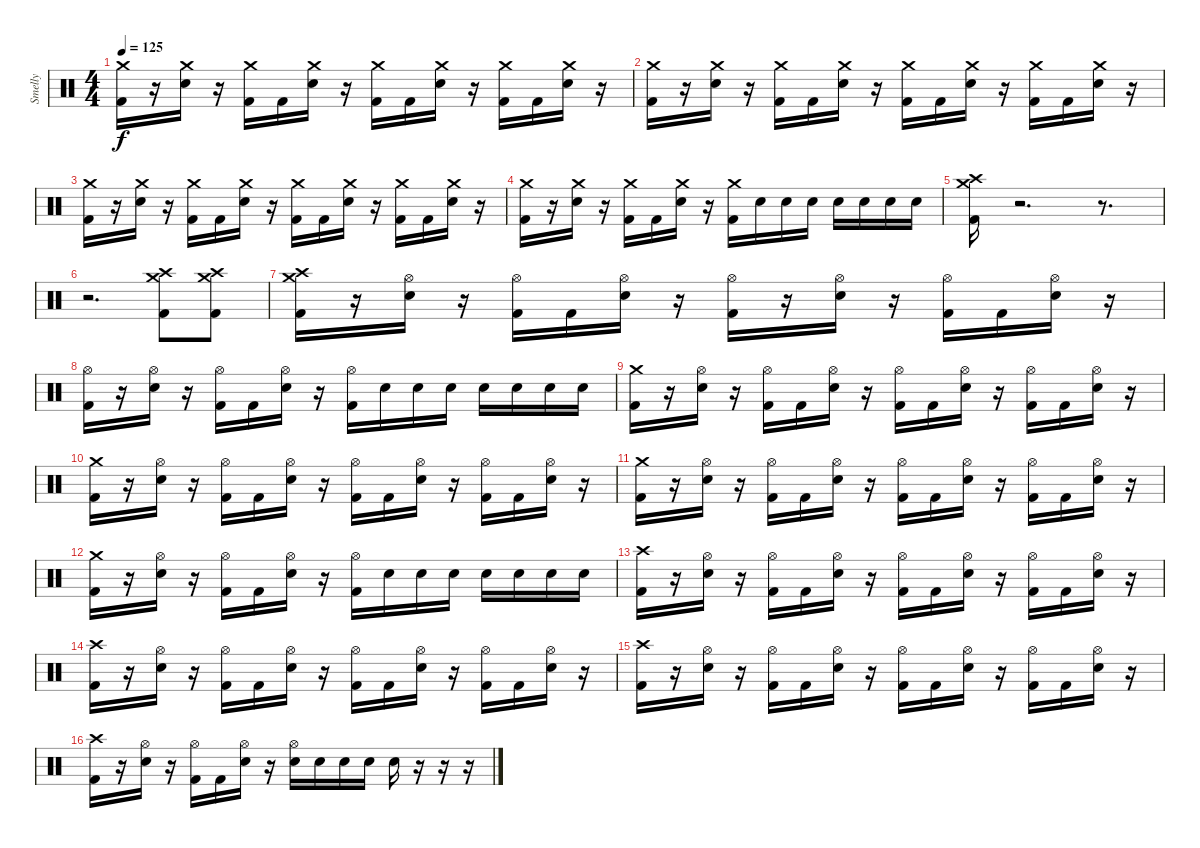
\track ("Smelly" "Smelly") {instrument percussion}
\staff {score}
\articulation defaults
\ts (4 4)
\tempo 125
\clef neutral
\ks c
("Crash medium (hit)" "Kick (hit) 2").16{dy f} r.16 ("Crash medium (hit)" "Electric Snare (hit)").16 r.16 ("Crash medium (hit)" "Kick (hit) 2").16 "Kick (hit) 2".16 ("Crash medium (hit)" "Electric Snare (hit)").16 r.16 ("Crash medium (hit)" "Kick (hit) 2").16 "Kick (hit) 2".16 ("Crash medium (hit)" "Electric Snare (hit)").16 r.16 ("Crash medium (hit)" "Kick (hit) 2").16 "Kick (hit) 2".16 ("Crash medium (hit)" "Electric Snare (hit)").16 r.16 |
("Crash medium (hit)" "Kick (hit) 2").16 r.16 ("Crash medium (hit)" "Electric Snare (hit)").16 r.16 ("Crash medium (hit)" "Kick (hit) 2").16 "Kick (hit) 2".16 ("Crash medium (hit)" "Electric Snare (hit)").16 r.16 ("Crash medium (hit)" "Kick (hit) 2").16 "Kick (hit) 2".16 ("Crash medium (hit)" "Electric Snare (hit)").16 r.16 ("Crash medium (hit)" "Kick (hit) 2").16 "Kick (hit) 2".16 ("Crash medium (hit)" "Electric Snare (hit)").16 r.16 |
("Crash medium (hit)" "Kick (hit) 2").16 r.16 ("Crash medium (hit)" "Electric Snare (hit)").16 r.16 ("Crash medium (hit)" "Kick (hit) 2").16 "Kick (hit) 2".16 ("Crash medium (hit)" "Electric Snare (hit)").16 r.16 ("Crash medium (hit)" "Kick (hit) 2").16 "Kick (hit) 2".16 ("Crash medium (hit)" "Electric Snare (hit)").16 r.16 ("Crash medium (hit)" "Kick (hit) 2").16 "Kick (hit) 2".16 ("Crash medium (hit)" "Electric Snare (hit)").16 r.16 |
("Crash medium (hit)" "Kick (hit) 2").16 r.16 ("Crash medium (hit)" "Electric Snare (hit)").16 r.16 ("Crash medium (hit)" "Kick (hit) 2").16 "Kick (hit) 2".16 ("Crash medium (hit)" "Electric Snare (hit)").16 r.16 ("Crash medium (hit)" "Kick (hit) 2").16 "Electric Snare (hit)".16 "Electric Snare (hit)".16 "Electric Snare (hit)".16 "Electric Snare (hit)".16 "Electric Snare (hit)".16 "Electric Snare (hit)".16 "Electric Snare (hit)".16 |
("Crash medium (hit)" "Crash high (hit)" "Kick (hit) 2").16 r.2{d} r.8{d} |
r.2{d} ("Crash high (hit)" "Crash medium (hit)" "Kick (hit) 2").8 ("Crash high (hit)" "Crash medium (hit)" "Kick (hit) 2").8 |
("Crash high (hit)" "Crash medium (hit)" "Kick (hit) 2").16 r.16 ("Hi-Hat (open)" "Electric Snare (hit)").16 r.16 ("Hi-Hat (open)" "Kick (hit) 2").16 "Kick (hit) 2".16 ("Hi-Hat (open)" "Electric Snare (hit)").16 r.16 ("Hi-Hat (open)" "Kick (hit) 2").16 r.16 ("Hi-Hat (open)" "Electric Snare (hit)").16 r.16 ("Hi-Hat (open)" "Kick (hit) 2").16 "Kick (hit) 2".16 ("Hi-Hat (open)" "Electric Snare (hit)").16 r.16 |
("Hi-Hat (open)" "Kick (hit) 2").16 r.16 ("Hi-Hat (open)" "Electric Snare (hit)").16 r.16 ("Hi-Hat (open)" "Kick (hit) 2").16 "Kick (hit) 2".16 ("Hi-Hat (open)" "Electric Snare (hit)").16 r.16 ("Hi-Hat (open)" "Kick (hit) 2").16 "Electric Snare (hit)".16 "Electric Snare (hit)".16 "Electric Snare (hit)".16 "Electric Snare (hit)".16 "Electric Snare (hit)".16 "Electric Snare (hit)".16 "Electric Snare (hit)".16 |
("Crash medium (hit)" "Kick (hit) 2").16 r.16 ("Hi-Hat (open)" "Electric Snare (hit)").16 r.16 ("Hi-Hat (open)" "Kick (hit) 2").16 "Kick (hit) 2".16 ("Hi-Hat (open)" "Electric Snare (hit)").16 r.16 ("Hi-Hat (open)" "Kick (hit) 2").16 "Kick (hit) 2".16 ("Hi-Hat (open)" "Electric Snare (hit)").16 r.16 ("Hi-Hat (open)" "Kick (hit) 2").16 "Kick (hit) 2".16 ("Hi-Hat (open)" "Electric Snare (hit)").16 r.16 |
("Crash medium (hit)" "Kick (hit) 2").16 r.16 ("Hi-Hat (open)" "Electric Snare (hit)").16 r.16 ("Hi-Hat (open)" "Kick (hit) 2").16 "Kick (hit) 2".16 ("Hi-Hat (open)" "Electric Snare (hit)").16 r.16 ("Hi-Hat (open)" "Kick (hit) 2").16 "Kick (hit) 2".16 ("Hi-Hat (open)" "Electric Snare (hit)").16 r.16 ("Hi-Hat (open)" "Kick (hit) 2").16 "Kick (hit) 2".16 ("Hi-Hat (open)" "Electric Snare (hit)").16 r.16 |
("Crash medium (hit)" "Kick (hit) 2").16 r.16 ("Hi-Hat (open)" "Electric Snare (hit)").16 r.16 ("Hi-Hat (open)" "Kick (hit) 2").16 "Kick (hit) 2".16 ("Hi-Hat (open)" "Electric Snare (hit)").16 r.16 ("Hi-Hat (open)" "Kick (hit) 2").16 "Kick (hit) 2".16 ("Hi-Hat (open)" "Electric Snare (hit)").16 r.16 ("Hi-Hat (open)" "Kick (hit) 2").16 "Kick (hit) 2".16 ("Hi-Hat (open)" "Electric Snare (hit)").16 r.16 |
("Crash medium (hit)" "Kick (hit) 2").16 r.16 ("Hi-Hat (open)" "Electric Snare (hit)").16 r.16 ("Hi-Hat (open)" "Kick (hit) 2").16 "Kick (hit) 2".16 ("Hi-Hat (open)" "Electric Snare (hit)").16 r.16 ("Hi-Hat (open)" "Kick (hit) 2").16 "Electric Snare (hit)".16 "Electric Snare (hit)".16 "Electric Snare (hit)".16 "Electric Snare (hit)".16 "Electric Snare (hit)".16 "Electric Snare (hit)".16 "Electric Snare (hit)".16 |
("Crash high (hit)" "Kick (hit) 2").16 r.16 ("Hi-Hat (open)" "Electric Snare (hit)").16 r.16 ("Hi-Hat (open)" "Kick (hit) 2").16 "Kick (hit) 2".16 ("Hi-Hat (open)" "Electric Snare (hit)").16 r.16 ("Hi-Hat (open)" "Kick (hit) 2").16 "Kick (hit) 2".16 ("Hi-Hat (open)" "Electric Snare (hit)").16 r.16 ("Hi-Hat (open)" "Kick (hit) 2").16 "Kick (hit) 2".16 ("Hi-Hat (open)" "Electric Snare (hit)").16 r.16 |
("Crash high (hit)" "Kick (hit) 2").16 r.16 ("Hi-Hat (open)" "Electric Snare (hit)").16 r.16 ("Hi-Hat (open)" "Kick (hit) 2").16 "Kick (hit) 2".16 ("Hi-Hat (open)" "Electric Snare (hit)").16 r.16 ("Hi-Hat (open)" "Kick (hit) 2").16 "Kick (hit) 2".16 ("Hi-Hat (open)" "Electric Snare (hit)").16 r.16 ("Hi-Hat (open)" "Kick (hit) 2").16 "Kick (hit) 2".16 ("Hi-Hat (open)" "Electric Snare (hit)").16 r.16 |
("Crash high (hit)" "Kick (hit) 2").16 r.16 ("Hi-Hat (open)" "Electric Snare (hit)").16 r.16 ("Hi-Hat (open)" "Kick (hit) 2").16 "Kick (hit) 2".16 ("Hi-Hat (open)" "Electric Snare (hit)").16 r.16 ("Hi-Hat (open)" "Kick (hit) 2").16 "Kick (hit) 2".16 ("Hi-Hat (open)" "Electric Snare (hit)").16 r.16 ("Hi-Hat (open)" "Kick (hit) 2").16 "Kick (hit) 2".16 ("Hi-Hat (open)" "Electric Snare (hit)").16 r.16 |
("Crash high (hit)" "Kick (hit) 2").16 r.16 ("Hi-Hat (open)" "Electric Snare (hit)").16 r.16 ("Hi-Hat (open)" "Kick (hit) 2").16 "Kick (hit) 2".16 ("Hi-Hat (open)" "Electric Snare (hit)").16 r.16 ("Hi-Hat (open)" "Electric Snare (hit)").16 "Electric Snare (hit)".16 "Electric Snare (hit)".16 "Electric Snare (hit)".16 "Electric Snare (hit)".16 r.16 r.16 r.16
